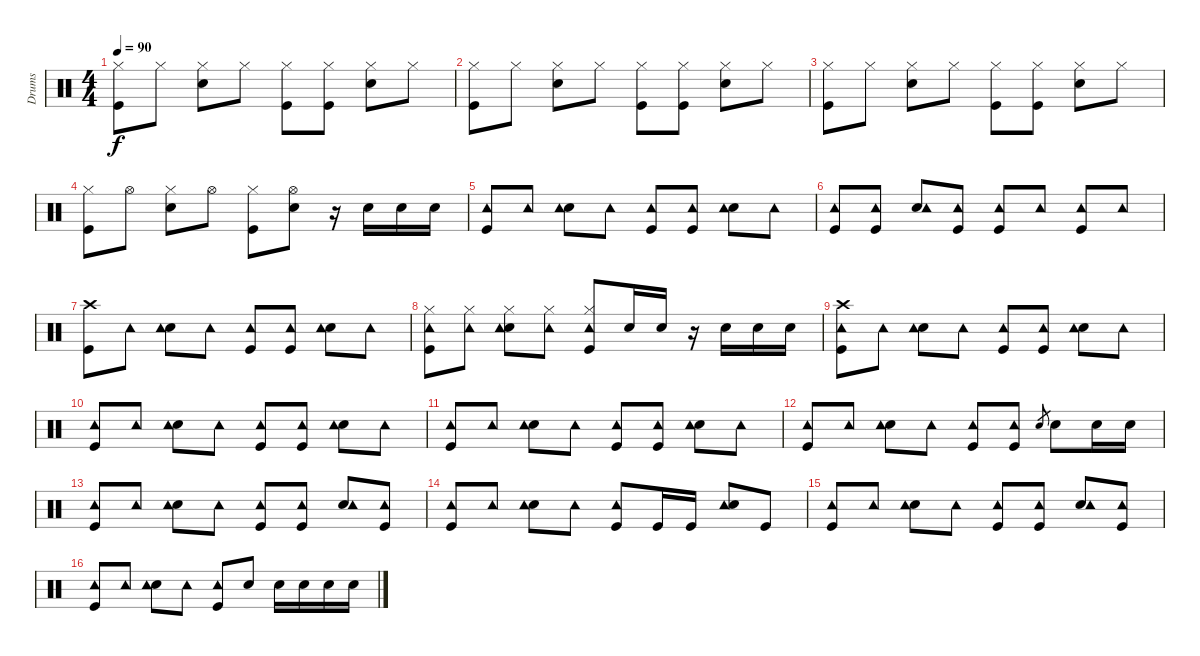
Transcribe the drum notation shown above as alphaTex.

\track ("Drums" "Drums") {instrument percussion}
\staff {score}
\articulation defaults
\ts (4 4)
\tempo 90
\clef neutral
\ks c
("Kick (hit)" "Hi-Hat (closed)").8{dy f} "Hi-Hat (closed)".8 ("Snare (hit) 2" "Hi-Hat (closed)").8 "Hi-Hat (closed)".8 ("Kick (hit)" "Hi-Hat (closed)").8 ("Kick (hit)" "Hi-Hat (closed)").8 ("Snare (hit) 2" "Hi-Hat (closed)").8 "Hi-Hat (closed)".8 |
("Kick (hit)" "Hi-Hat (closed)").8 "Hi-Hat (closed)".8 ("Snare (hit) 2" "Hi-Hat (closed)").8 "Hi-Hat (closed)".8 ("Kick (hit)" "Hi-Hat (closed)").8 ("Kick (hit)" "Hi-Hat (closed)").8 ("Snare (hit) 2" "Hi-Hat (closed)").8 "Hi-Hat (closed)".8 |
("Kick (hit)" "Hi-Hat (closed)").8 "Hi-Hat (closed)".8 ("Snare (hit) 2" "Hi-Hat (closed)").8 "Hi-Hat (closed)".8 ("Kick (hit)" "Hi-Hat (closed)").8 ("Kick (hit)" "Hi-Hat (closed)").8 ("Snare (hit) 2" "Hi-Hat (closed)").8 "Hi-Hat (closed)".8 |
("Kick (hit)" "Hi-Hat (closed)").8 "Hi-Hat (open)".8 ("Snare (hit) 2" "Hi-Hat (closed)").8 "Hi-Hat (open)".8 ("Kick (hit)" "Hi-Hat (closed)").8 ("Snare (hit) 2" "Hi-Hat (open)").8 r.16 "Snare (hit) 2".16 "Snare (hit) 2".16 "Snare (hit) 2".16 |
("Tambourine (hit)" "Kick (hit)").8 "Tambourine (hit)".8 ("Snare (hit) 2" "Tambourine (hit)").8 "Tambourine (hit)".8 ("Kick (hit)" "Tambourine (hit)").8 ("Kick (hit)" "Tambourine (hit)").8 ("Snare (hit) 2" "Tambourine (hit)").8 "Tambourine (hit)".8 |
("Kick (hit)" "Tambourine (hit)").8 ("Kick (hit)" "Tambourine (hit)").8 ("Snare (hit) 2" "Tambourine (hit)").8 ("Tambourine (hit)" "Kick (hit)").8 ("Kick (hit)" "Tambourine (hit)").8 "Tambourine (hit)".8 ("Kick (hit)" "Tambourine (hit)").8 "Tambourine (hit)".8 |
("Kick (hit)" "Crash high (hit)").8 "Tambourine (hit)".8 ("Snare (hit) 2" "Tambourine (hit)").8 "Tambourine (hit)".8 ("Kick (hit)" "Tambourine (hit)").8 ("Kick (hit)" "Tambourine (hit)").8 ("Snare (hit) 2" "Tambourine (hit)").8 "Tambourine (hit)".8 |
("Kick (hit)" "Hi-Hat (closed)" "Tambourine (hit)").8 ("Tambourine (hit)" "Hi-Hat (closed)").8 ("Snare (hit) 2" "Tambourine (hit)" "Hi-Hat (closed)").8 ("Tambourine (hit)" "Hi-Hat (closed)").8 ("Kick (hit)" "Tambourine (hit)" "Hi-Hat (closed)").8 "Snare (hit) 2".16 "Snare (hit) 2".16 r.16 "Snare (hit) 2".16 "Snare (hit) 2".16 "Snare (hit) 2".16 |
("Tambourine (hit)" "Kick (hit)" "Crash high (hit)").8 "Tambourine (hit)".8 ("Snare (hit) 2" "Tambourine (hit)").8 "Tambourine (hit)".8 ("Kick (hit)" "Tambourine (hit)").8 ("Kick (hit)" "Tambourine (hit)").8 ("Snare (hit) 2" "Tambourine (hit)").8 "Tambourine (hit)".8 |
("Tambourine (hit)" "Kick (hit)").8 "Tambourine (hit)".8 ("Snare (hit) 2" "Tambourine (hit)").8 "Tambourine (hit)".8 ("Kick (hit)" "Tambourine (hit)").8 ("Kick (hit)" "Tambourine (hit)").8 ("Snare (hit) 2" "Tambourine (hit)").8 "Tambourine (hit)".8 |
("Tambourine (hit)" "Kick (hit)").8 "Tambourine (hit)".8 ("Snare (hit) 2" "Tambourine (hit)").8 "Tambourine (hit)".8 ("Kick (hit)" "Tambourine (hit)").8 ("Kick (hit)" "Tambourine (hit)").8 ("Snare (hit) 2" "Tambourine (hit)").8 "Tambourine (hit)".8 |
("Kick (hit)" "Tambourine (hit)").8 "Tambourine (hit)".8 ("Snare (hit) 2" "Tambourine (hit)").8 "Tambourine (hit)".8 ("Kick (hit)" "Tambourine (hit)").8 ("Kick (hit)" "Tambourine (hit)").8 "Snare (hit) 2"{h}.8{gr} "Snare (hit) 2".8 "Snare (hit) 2".16 "Snare (hit) 2".16 |
("Tambourine (hit)" "Kick (hit)").8 "Tambourine (hit)".8 ("Snare (hit) 2" "Tambourine (hit)").8 "Tambourine (hit)".8 ("Kick (hit)" "Tambourine (hit)").8 ("Kick (hit)" "Tambourine (hit)").8 ("Snare (hit) 2" "Tambourine (hit)").8 ("Kick (hit)" "Tambourine (hit)").8 |
("Tambourine (hit)" "Kick (hit)").8 "Tambourine (hit)".8 ("Snare (hit) 2" "Tambourine (hit)").8 "Tambourine (hit)".8 ("Kick (hit)" "Tambourine (hit)").8 "Kick (hit)".16 "Kick (hit)".16 ("Tambourine (hit)" "Snare (hit) 2").8 "Kick (hit)".8 |
("Tambourine (hit)" "Kick (hit)").8 "Tambourine (hit)".8 ("Snare (hit) 2" "Tambourine (hit)").8 "Tambourine (hit)".8 ("Kick (hit)" "Tambourine (hit)").8 ("Kick (hit)" "Tambourine (hit)").8 ("Snare (hit) 2" "Tambourine (hit)").8 ("Kick (hit)" "Tambourine (hit)").8 |
("Tambourine (hit)" "Kick (hit)").8 "Tambourine (hit)".8 ("Snare (hit) 2" "Tambourine (hit)").8 "Tambourine (hit)".8 ("Kick (hit)" "Tambourine (hit)").8 "Snare (hit) 2".8 "Snare (hit) 2".16 "Snare (hit) 2".16 "Snare (hit) 2".16 "Snare (hit) 2".16
